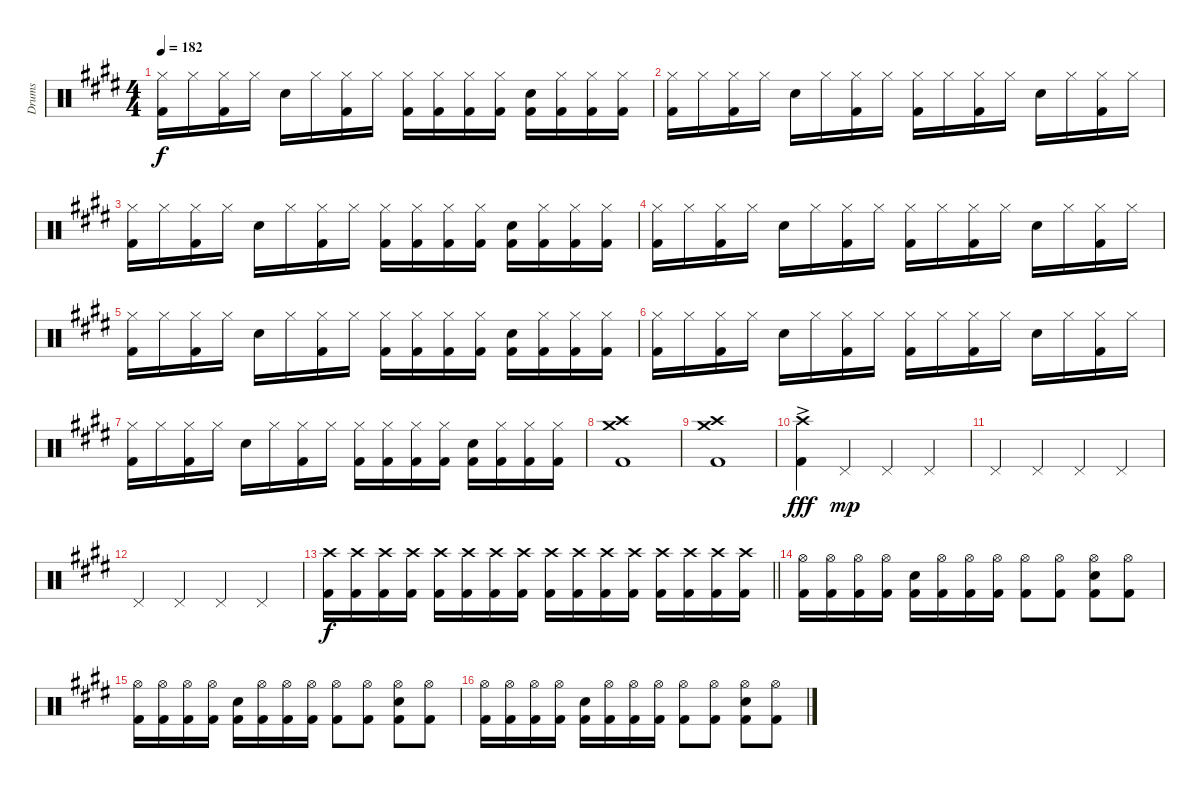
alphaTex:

\track ("Drums" "Drums") {instrument percussion}
\staff {score}
\articulation defaults
\ts (4 4)
\tempo 182
\clef neutral
\ks c#minor
("Hi-Hat (closed)" "Kick (hit) 2").16{dy f} "Hi-Hat (closed)".16 ("Hi-Hat (closed)" "Kick (hit) 2").16 "Hi-Hat (closed)".16 "Snare (hit) 2".16 "Hi-Hat (closed)".16 ("Hi-Hat (closed)" "Kick (hit) 2").16 "Hi-Hat (closed)".16 ("Hi-Hat (closed)" "Kick (hit) 2").16 ("Hi-Hat (closed)" "Kick (hit) 2").16 ("Hi-Hat (closed)" "Kick (hit) 2").16 ("Hi-Hat (closed)" "Kick (hit) 2").16 ("Snare (hit) 2" "Kick (hit) 2").16 ("Hi-Hat (closed)" "Kick (hit) 2").16 ("Hi-Hat (closed)" "Kick (hit) 2").16 ("Hi-Hat (closed)" "Kick (hit) 2").16 |
("Hi-Hat (closed)" "Kick (hit) 2").16 "Hi-Hat (closed)".16 ("Hi-Hat (closed)" "Kick (hit) 2").16 "Hi-Hat (closed)".16 "Snare (hit) 2".16 "Hi-Hat (closed)".16 ("Hi-Hat (closed)" "Kick (hit) 2").16 "Hi-Hat (closed)".16 ("Hi-Hat (closed)" "Kick (hit) 2").16 "Hi-Hat (closed)".16 ("Hi-Hat (closed)" "Kick (hit) 2").16 "Hi-Hat (closed)".16 "Snare (hit) 2".16 "Hi-Hat (closed)".16 ("Hi-Hat (closed)" "Kick (hit) 2").16 "Hi-Hat (closed)".16 |
("Hi-Hat (closed)" "Kick (hit) 2").16 "Hi-Hat (closed)".16 ("Hi-Hat (closed)" "Kick (hit) 2").16 "Hi-Hat (closed)".16 "Snare (hit) 2".16 "Hi-Hat (closed)".16 ("Hi-Hat (closed)" "Kick (hit) 2").16 "Hi-Hat (closed)".16 ("Hi-Hat (closed)" "Kick (hit) 2").16 ("Hi-Hat (closed)" "Kick (hit) 2").16 ("Hi-Hat (closed)" "Kick (hit) 2").16 ("Hi-Hat (closed)" "Kick (hit) 2").16 ("Snare (hit) 2" "Kick (hit) 2").16 ("Hi-Hat (closed)" "Kick (hit) 2").16 ("Hi-Hat (closed)" "Kick (hit) 2").16 ("Hi-Hat (closed)" "Kick (hit) 2").16 |
("Hi-Hat (closed)" "Kick (hit) 2").16 "Hi-Hat (closed)".16 ("Hi-Hat (closed)" "Kick (hit) 2").16 "Hi-Hat (closed)".16 "Snare (hit) 2".16 "Hi-Hat (closed)".16 ("Hi-Hat (closed)" "Kick (hit) 2").16 "Hi-Hat (closed)".16 ("Hi-Hat (closed)" "Kick (hit) 2").16 "Hi-Hat (closed)".16 ("Hi-Hat (closed)" "Kick (hit) 2").16 "Hi-Hat (closed)".16 "Snare (hit) 2".16 "Hi-Hat (closed)".16 ("Hi-Hat (closed)" "Kick (hit) 2").16 "Hi-Hat (closed)".16 |
("Hi-Hat (closed)" "Kick (hit) 2").16 "Hi-Hat (closed)".16 ("Hi-Hat (closed)" "Kick (hit) 2").16 "Hi-Hat (closed)".16 "Snare (hit) 2".16 "Hi-Hat (closed)".16 ("Hi-Hat (closed)" "Kick (hit) 2").16 "Hi-Hat (closed)".16 ("Hi-Hat (closed)" "Kick (hit) 2").16 ("Hi-Hat (closed)" "Kick (hit) 2").16 ("Hi-Hat (closed)" "Kick (hit) 2").16 ("Hi-Hat (closed)" "Kick (hit) 2").16 ("Snare (hit) 2" "Kick (hit) 2").16 ("Hi-Hat (closed)" "Kick (hit) 2").16 ("Hi-Hat (closed)" "Kick (hit) 2").16 ("Hi-Hat (closed)" "Kick (hit) 2").16 |
("Hi-Hat (closed)" "Kick (hit) 2").16 "Hi-Hat (closed)".16 ("Hi-Hat (closed)" "Kick (hit) 2").16 "Hi-Hat (closed)".16 "Snare (hit) 2".16 "Hi-Hat (closed)".16 ("Hi-Hat (closed)" "Kick (hit) 2").16 "Hi-Hat (closed)".16 ("Hi-Hat (closed)" "Kick (hit) 2").16 "Hi-Hat (closed)".16 ("Hi-Hat (closed)" "Kick (hit) 2").16 "Hi-Hat (closed)".16 "Snare (hit) 2".16 "Hi-Hat (closed)".16 ("Hi-Hat (closed)" "Kick (hit) 2").16 "Hi-Hat (closed)".16 |
("Hi-Hat (closed)" "Kick (hit) 2").16 "Hi-Hat (closed)".16 ("Hi-Hat (closed)" "Kick (hit) 2").16 "Hi-Hat (closed)".16 "Snare (hit) 2".16 "Hi-Hat (closed)".16 ("Hi-Hat (closed)" "Kick (hit) 2").16 "Hi-Hat (closed)".16 ("Hi-Hat (closed)" "Kick (hit) 2").16 ("Hi-Hat (closed)" "Kick (hit) 2").16 ("Hi-Hat (closed)" "Kick (hit) 2").16 ("Hi-Hat (closed)" "Kick (hit) 2").16 ("Snare (hit) 2" "Kick (hit) 2").16 ("Hi-Hat (closed)" "Kick (hit) 2").16 ("Hi-Hat (closed)" "Kick (hit) 2").16 ("Hi-Hat (closed)" "Kick (hit) 2").16 |
("Crash high (hit)" "Crash medium (hit)" "Kick (hit) 2").1 |
("Crash high (hit)" "Crash medium (hit)" "Kick (hit) 2").1 |
("Crash high (hit)" "Kick (hit) 2"{ac}).4{dy fff} "Pedal Hi-Hat (hit)".4{dy mp} "Pedal Hi-Hat (hit)".4 "Pedal Hi-Hat (hit)".4 |
"Pedal Hi-Hat (hit)".4 "Pedal Hi-Hat (hit)".4 "Pedal Hi-Hat (hit)".4 "Pedal Hi-Hat (hit)".4 |
"Pedal Hi-Hat (hit)".4 "Pedal Hi-Hat (hit)".4 "Pedal Hi-Hat (hit)".4 "Pedal Hi-Hat (hit)".4 |
\barLineRight lightlight
("Crash high (hit)" "Kick (hit) 2").16{dy f} ("Crash high (hit)" "Kick (hit) 2").16 ("Crash high (hit)" "Kick (hit) 2").16 ("Crash high (hit)" "Kick (hit) 2").16 ("Crash high (hit)" "Kick (hit) 2").16 ("Crash high (hit)" "Kick (hit) 2").16 ("Crash high (hit)" "Kick (hit) 2").16 ("Crash high (hit)" "Kick (hit) 2").16 ("Crash high (hit)" "Kick (hit) 2").16 ("Crash high (hit)" "Kick (hit) 2").16 ("Crash high (hit)" "Kick (hit) 2").16 ("Crash high (hit)" "Kick (hit) 2").16 ("Crash high (hit)" "Kick (hit) 2").16 ("Crash high (hit)" "Kick (hit) 2").16 ("Crash high (hit)" "Kick (hit) 2").16 ("Crash high (hit)" "Kick (hit) 2").16 |
("Hi-Hat (open)" "Kick (hit) 2").16 ("Hi-Hat (open)" "Kick (hit) 2").16 ("Hi-Hat (open)" "Kick (hit) 2").16 ("Hi-Hat (open)" "Kick (hit) 2").16 ("Snare (hit) 2" "Kick (hit) 2").16 ("Hi-Hat (open)" "Kick (hit) 2").16 ("Hi-Hat (open)" "Kick (hit) 2").16 ("Hi-Hat (open)" "Kick (hit) 2").16 ("Hi-Hat (open)" "Kick (hit) 2").8 ("Hi-Hat (open)" "Kick (hit) 2").8 ("Hi-Hat (open)" "Snare (hit) 2" "Kick (hit) 2").8 ("Hi-Hat (open)" "Kick (hit) 2").8 |
("Hi-Hat (open)" "Kick (hit) 2").16 ("Hi-Hat (open)" "Kick (hit) 2").16 ("Hi-Hat (open)" "Kick (hit) 2").16 ("Hi-Hat (open)" "Kick (hit) 2").16 ("Snare (hit) 2" "Kick (hit) 2").16 ("Hi-Hat (open)" "Kick (hit) 2").16 ("Hi-Hat (open)" "Kick (hit) 2").16 ("Hi-Hat (open)" "Kick (hit) 2").16 ("Hi-Hat (open)" "Kick (hit) 2").8 ("Hi-Hat (open)" "Kick (hit) 2").8 ("Hi-Hat (open)" "Snare (hit) 2" "Kick (hit) 2").8 ("Hi-Hat (open)" "Kick (hit) 2").8 |
("Hi-Hat (open)" "Kick (hit) 2").16 ("Hi-Hat (open)" "Kick (hit) 2").16 ("Hi-Hat (open)" "Kick (hit) 2").16 ("Hi-Hat (open)" "Kick (hit) 2").16 ("Snare (hit) 2" "Kick (hit) 2").16 ("Hi-Hat (open)" "Kick (hit) 2").16 ("Hi-Hat (open)" "Kick (hit) 2").16 ("Hi-Hat (open)" "Kick (hit) 2").16 ("Hi-Hat (open)" "Kick (hit) 2").8 ("Hi-Hat (open)" "Kick (hit) 2").8 ("Hi-Hat (open)" "Snare (hit) 2" "Kick (hit) 2").8 ("Hi-Hat (open)" "Kick (hit) 2").8
